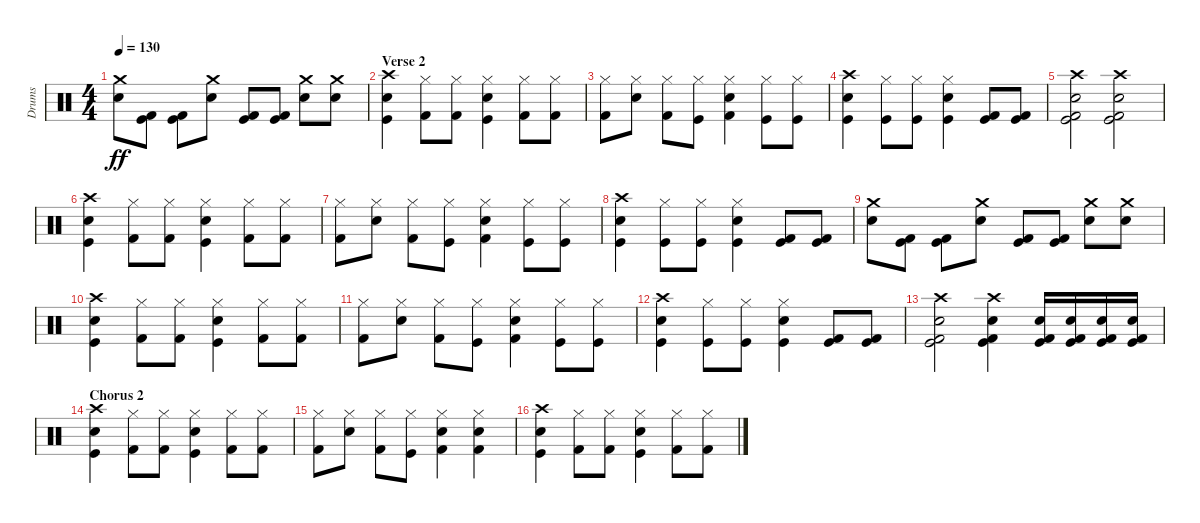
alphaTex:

\track ("Drums" "Drums") {instrument percussion}
\staff {score}
\articulation defaults
\ts (4 4)
\tempo 130
\clef neutral
\ks c
("Crash medium (hit)" "Snare (hit) 2").8{dy ff} ("Kick (hit) 2" "Kick (hit)").8 ("Kick (hit) 2" "Kick (hit)").8 ("Crash medium (hit)" "Snare (hit) 2").8 ("Kick (hit) 2" "Kick (hit)").8 ("Kick (hit) 2" "Kick (hit)").8 ("Crash medium (hit)" "Snare (hit) 2").8 ("Crash medium (hit)" "Snare (hit) 2").8 |
\section ("" "Verse 2")
("Crash high (hit)" "Snare (hit) 2" "Kick (hit)").4 ("Hi-Hat (closed)" "Kick (hit) 2").8 ("Hi-Hat (closed)" "Kick (hit) 2").8 ("Hi-Hat (closed)" "Snare (hit) 2" "Kick (hit)").4 ("Hi-Hat (closed)" "Kick (hit) 2").8 ("Hi-Hat (closed)" "Kick (hit) 2").8 |
("Hi-Hat (closed)" "Kick (hit) 2").8 ("Hi-Hat (closed)" "Snare (hit) 2").8 ("Hi-Hat (closed)" "Kick (hit) 2").8 ("Hi-Hat (closed)" "Kick (hit)").8 ("Hi-Hat (closed)" "Kick (hit) 2" "Snare (hit) 2").4 ("Hi-Hat (closed)" "Kick (hit)").8 ("Hi-Hat (closed)" "Kick (hit)").8 |
("Crash high (hit)" "Snare (hit) 2" "Kick (hit)").4 ("Hi-Hat (closed)" "Kick (hit)").8 ("Hi-Hat (closed)" "Kick (hit)").8 ("Hi-Hat (closed)" "Snare (hit) 2" "Kick (hit)").4 ("Kick (hit) 2" "Kick (hit)").8 ("Kick (hit) 2" "Kick (hit)").8 |
("Crash high (hit)" "Snare (hit) 2" "Kick (hit) 2" "Kick (hit)").2 ("Crash high (hit)" "Snare (hit) 2" "Kick (hit) 2" "Kick (hit)").2 |
("Crash high (hit)" "Snare (hit) 2" "Kick (hit)").4 ("Hi-Hat (closed)" "Kick (hit) 2").8 ("Hi-Hat (closed)" "Kick (hit) 2").8 ("Hi-Hat (closed)" "Snare (hit) 2" "Kick (hit)").4 ("Hi-Hat (closed)" "Kick (hit) 2").8 ("Hi-Hat (closed)" "Kick (hit) 2").8 |
("Hi-Hat (closed)" "Kick (hit) 2").8 ("Hi-Hat (closed)" "Snare (hit) 2").8 ("Hi-Hat (closed)" "Kick (hit) 2").8 ("Hi-Hat (closed)" "Kick (hit)").8 ("Hi-Hat (closed)" "Kick (hit) 2" "Snare (hit) 2").4 ("Hi-Hat (closed)" "Kick (hit)").8 ("Hi-Hat (closed)" "Kick (hit)").8 |
("Crash high (hit)" "Snare (hit) 2" "Kick (hit)").4 ("Hi-Hat (closed)" "Kick (hit)").8 ("Hi-Hat (closed)" "Kick (hit)").8 ("Hi-Hat (closed)" "Snare (hit) 2" "Kick (hit)").4 ("Kick (hit) 2" "Kick (hit)").8 ("Kick (hit) 2" "Kick (hit)").8 |
("Crash medium (hit)" "Snare (hit) 2").8 ("Kick (hit) 2" "Kick (hit)").8 ("Kick (hit) 2" "Kick (hit)").8 ("Crash medium (hit)" "Snare (hit) 2").8 ("Kick (hit) 2" "Kick (hit)").8 ("Kick (hit) 2" "Kick (hit)").8 ("Crash medium (hit)" "Snare (hit) 2").8 ("Crash medium (hit)" "Snare (hit) 2").8 |
("Crash high (hit)" "Snare (hit) 2" "Kick (hit)").4 ("Hi-Hat (closed)" "Kick (hit) 2").8 ("Hi-Hat (closed)" "Kick (hit) 2").8 ("Hi-Hat (closed)" "Snare (hit) 2" "Kick (hit)").4 ("Hi-Hat (closed)" "Kick (hit) 2").8 ("Hi-Hat (closed)" "Kick (hit) 2").8 |
("Hi-Hat (closed)" "Kick (hit) 2").8 ("Hi-Hat (closed)" "Snare (hit) 2").8 ("Hi-Hat (closed)" "Kick (hit) 2").8 ("Hi-Hat (closed)" "Kick (hit)").8 ("Hi-Hat (closed)" "Kick (hit) 2" "Snare (hit) 2").4 ("Hi-Hat (closed)" "Kick (hit)").8 ("Hi-Hat (closed)" "Kick (hit)").8 |
("Crash high (hit)" "Snare (hit) 2" "Kick (hit)").4 ("Hi-Hat (closed)" "Kick (hit)").8 ("Hi-Hat (closed)" "Kick (hit)").8 ("Hi-Hat (closed)" "Snare (hit) 2" "Kick (hit)").4 ("Kick (hit) 2" "Kick (hit)").8 ("Kick (hit) 2" "Kick (hit)").8 |
("Crash high (hit)" "Snare (hit) 2" "Kick (hit) 2" "Kick (hit)").2 ("Crash high (hit)" "Snare (hit) 2" "Kick (hit) 2" "Kick (hit)").4 ("Kick (hit) 2" "Snare (hit) 2" "Kick (hit)").16 ("Kick (hit) 2" "Snare (hit) 2" "Kick (hit)").16 ("Kick (hit) 2" "Snare (hit) 2" "Kick (hit)").16 ("Kick (hit) 2" "Snare (hit) 2" "Kick (hit)").16 |
\section ("" "Chorus 2")
("Crash high (hit)" "Snare (hit) 2" "Kick (hit)").4 ("Hi-Hat (closed)" "Kick (hit) 2").8 ("Hi-Hat (closed)" "Kick (hit) 2").8 ("Hi-Hat (closed)" "Snare (hit) 2" "Kick (hit)").4 ("Hi-Hat (closed)" "Kick (hit) 2").8 ("Hi-Hat (closed)" "Kick (hit) 2").8 |
("Hi-Hat (closed)" "Kick (hit) 2").8 ("Hi-Hat (closed)" "Snare (hit) 2").8 ("Hi-Hat (closed)" "Kick (hit) 2").8 ("Hi-Hat (closed)" "Kick (hit)").8 ("Hi-Hat (closed)" "Kick (hit) 2" "Snare (hit) 2").4 ("Hi-Hat (closed)" "Kick (hit) 2" "Snare (hit) 2").4 |
("Crash high (hit)" "Snare (hit) 2" "Kick (hit)").4 ("Hi-Hat (closed)" "Kick (hit) 2").8 ("Hi-Hat (closed)" "Kick (hit) 2").8 ("Hi-Hat (closed)" "Snare (hit) 2" "Kick (hit)").4 ("Hi-Hat (closed)" "Kick (hit) 2").8 ("Hi-Hat (closed)" "Kick (hit) 2").8
